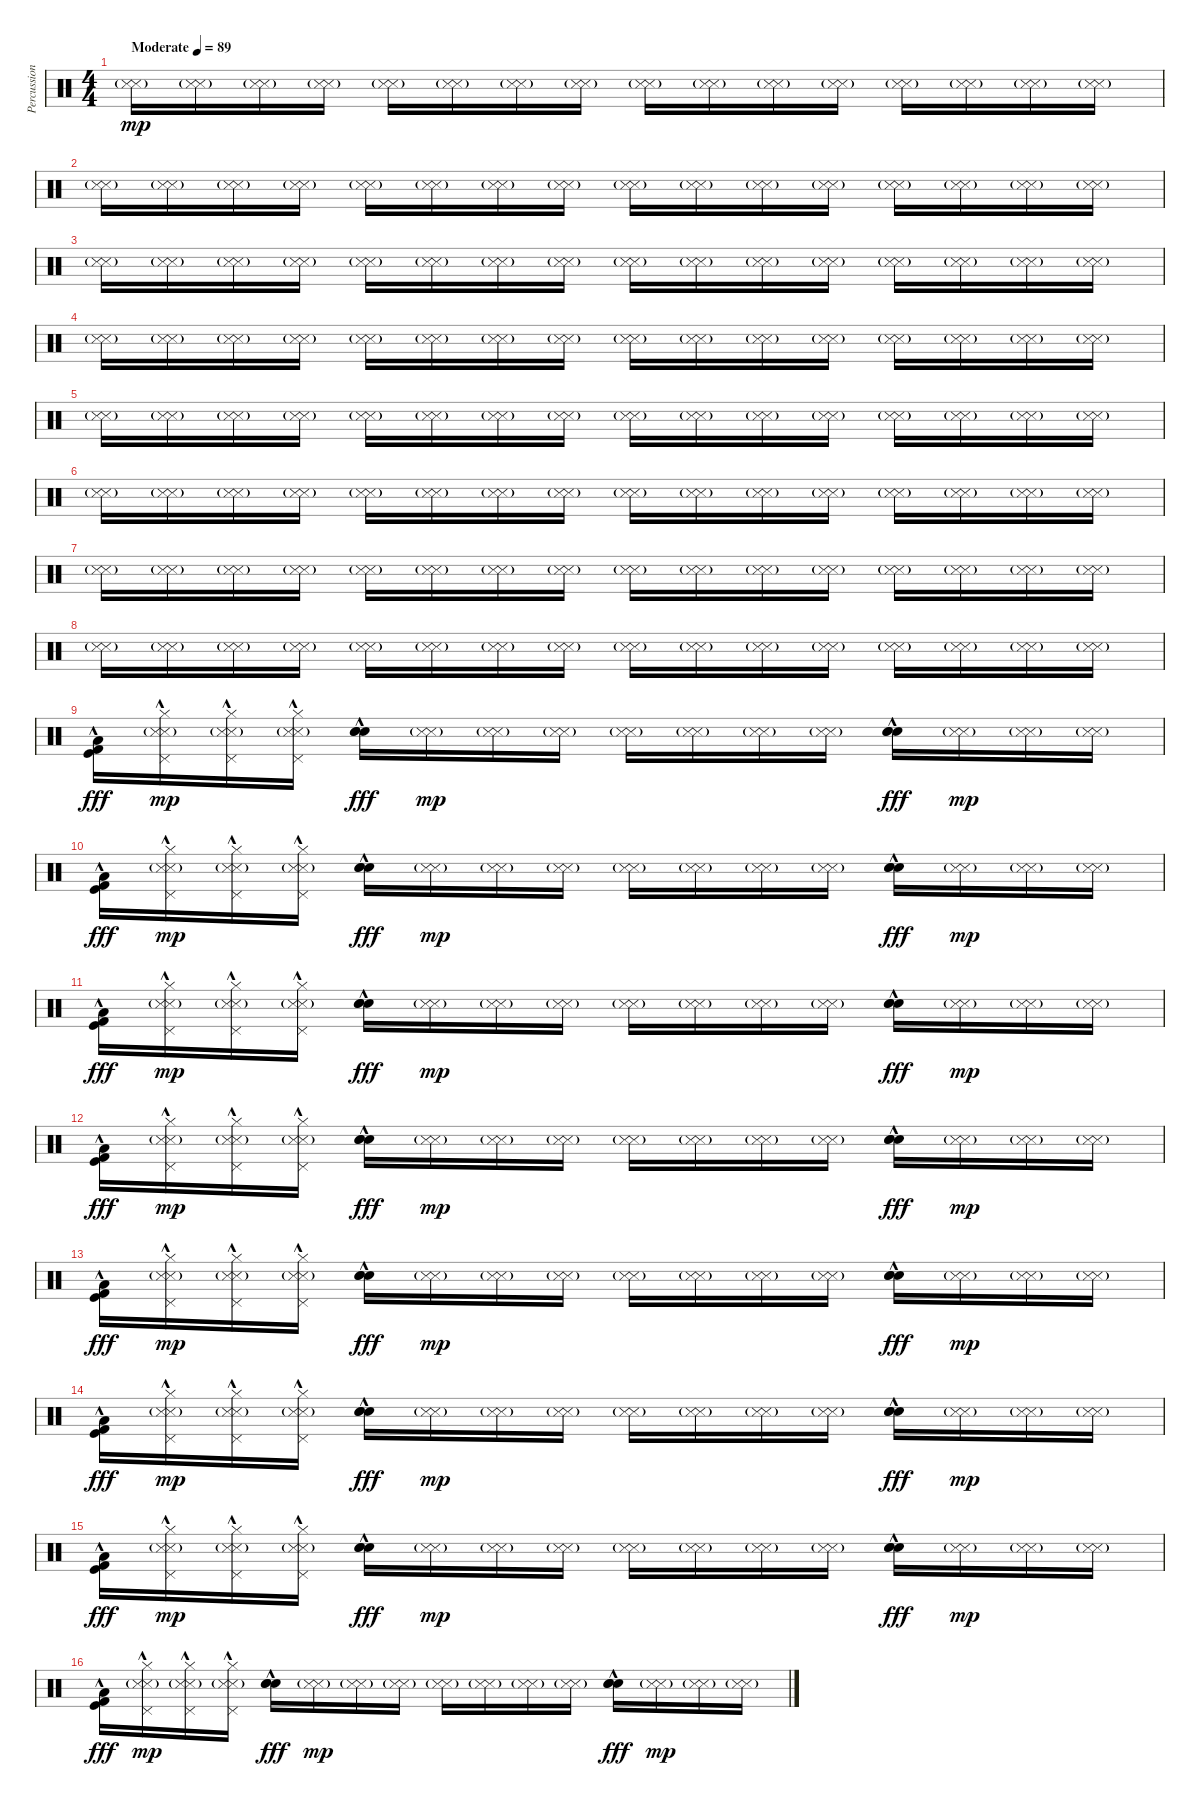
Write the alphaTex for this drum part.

\track ("Percussion" "Percussion") {instrument percussion}
\staff {score}
\articulation defaults
\ts (4 4)
\tempo (89 "Moderate")
\clef neutral
\ks c
("Snare (side stick) 3"{g} "Metronome (hit)"{g}).16{dy mp} ("Snare (side stick) 3"{g} "Metronome (hit)"{g}).16 ("Snare (side stick) 3"{g} "Metronome (hit)"{g}).16 ("Snare (side stick) 3"{g} "Metronome (hit)"{g}).16 ("Snare (side stick) 3"{g} "Metronome (hit)"{g}).16 ("Snare (side stick) 3"{g} "Metronome (hit)"{g}).16 ("Snare (side stick) 3"{g} "Metronome (hit)"{g}).16 ("Snare (side stick) 3"{g} "Metronome (hit)"{g}).16 ("Snare (side stick) 3"{g} "Metronome (hit)"{g}).16 ("Snare (side stick) 3"{g} "Metronome (hit)"{g}).16 ("Snare (side stick) 3"{g} "Metronome (hit)"{g}).16 ("Snare (side stick) 3"{g} "Metronome (hit)"{g}).16 ("Snare (side stick) 3"{g} "Metronome (hit)"{g}).16 ("Snare (side stick) 3"{g} "Metronome (hit)"{g}).16 ("Snare (side stick) 3"{g} "Metronome (hit)"{g}).16 ("Snare (side stick) 3"{g} "Metronome (hit)"{g}).16 |
("Snare (side stick) 3"{g} "Metronome (hit)"{g}).16 ("Snare (side stick) 3"{g} "Metronome (hit)"{g}).16 ("Snare (side stick) 3"{g} "Metronome (hit)"{g}).16 ("Snare (side stick) 3"{g} "Metronome (hit)"{g}).16 ("Snare (side stick) 3"{g} "Metronome (hit)"{g}).16 ("Snare (side stick) 3"{g} "Metronome (hit)"{g}).16 ("Snare (side stick) 3"{g} "Metronome (hit)"{g}).16 ("Snare (side stick) 3"{g} "Metronome (hit)"{g}).16 ("Snare (side stick) 3"{g} "Metronome (hit)"{g}).16 ("Snare (side stick) 3"{g} "Metronome (hit)"{g}).16 ("Snare (side stick) 3"{g} "Metronome (hit)"{g}).16 ("Snare (side stick) 3"{g} "Metronome (hit)"{g}).16 ("Snare (side stick) 3"{g} "Metronome (hit)"{g}).16 ("Snare (side stick) 3"{g} "Metronome (hit)"{g}).16 ("Snare (side stick) 3"{g} "Metronome (hit)"{g}).16 ("Snare (side stick) 3"{g} "Metronome (hit)"{g}).16 |
("Snare (side stick) 3"{g} "Metronome (hit)"{g}).16 ("Snare (side stick) 3"{g} "Metronome (hit)"{g}).16 ("Snare (side stick) 3"{g} "Metronome (hit)"{g}).16 ("Snare (side stick) 3"{g} "Metronome (hit)"{g}).16 ("Snare (side stick) 3"{g} "Metronome (hit)"{g}).16 ("Snare (side stick) 3"{g} "Metronome (hit)"{g}).16 ("Snare (side stick) 3"{g} "Metronome (hit)"{g}).16 ("Snare (side stick) 3"{g} "Metronome (hit)"{g}).16 ("Snare (side stick) 3"{g} "Metronome (hit)"{g}).16 ("Snare (side stick) 3"{g} "Metronome (hit)"{g}).16 ("Snare (side stick) 3"{g} "Metronome (hit)"{g}).16 ("Snare (side stick) 3"{g} "Metronome (hit)"{g}).16 ("Snare (side stick) 3"{g} "Metronome (hit)"{g}).16 ("Snare (side stick) 3"{g} "Metronome (hit)"{g}).16 ("Snare (side stick) 3"{g} "Metronome (hit)"{g}).16 ("Snare (side stick) 3"{g} "Metronome (hit)"{g}).16 |
("Snare (side stick) 3"{g} "Metronome (hit)"{g}).16 ("Snare (side stick) 3"{g} "Metronome (hit)"{g}).16 ("Snare (side stick) 3"{g} "Metronome (hit)"{g}).16 ("Snare (side stick) 3"{g} "Metronome (hit)"{g}).16 ("Snare (side stick) 3"{g} "Metronome (hit)"{g}).16 ("Snare (side stick) 3"{g} "Metronome (hit)"{g}).16 ("Snare (side stick) 3"{g} "Metronome (hit)"{g}).16 ("Snare (side stick) 3"{g} "Metronome (hit)"{g}).16 ("Snare (side stick) 3"{g} "Metronome (hit)"{g}).16 ("Snare (side stick) 3"{g} "Metronome (hit)"{g}).16 ("Snare (side stick) 3"{g} "Metronome (hit)"{g}).16 ("Snare (side stick) 3"{g} "Metronome (hit)"{g}).16 ("Snare (side stick) 3"{g} "Metronome (hit)"{g}).16 ("Snare (side stick) 3"{g} "Metronome (hit)"{g}).16 ("Snare (side stick) 3"{g} "Metronome (hit)"{g}).16 ("Snare (side stick) 3"{g} "Metronome (hit)"{g}).16 |
("Snare (side stick) 3"{g} "Metronome (hit)"{g}).16 ("Snare (side stick) 3"{g} "Metronome (hit)"{g}).16 ("Snare (side stick) 3"{g} "Metronome (hit)"{g}).16 ("Snare (side stick) 3"{g} "Metronome (hit)"{g}).16 ("Snare (side stick) 3"{g} "Metronome (hit)"{g}).16 ("Snare (side stick) 3"{g} "Metronome (hit)"{g}).16 ("Snare (side stick) 3"{g} "Metronome (hit)"{g}).16 ("Snare (side stick) 3"{g} "Metronome (hit)"{g}).16 ("Snare (side stick) 3"{g} "Metronome (hit)"{g}).16 ("Snare (side stick) 3"{g} "Metronome (hit)"{g}).16 ("Snare (side stick) 3"{g} "Metronome (hit)"{g}).16 ("Snare (side stick) 3"{g} "Metronome (hit)"{g}).16 ("Snare (side stick) 3"{g} "Metronome (hit)"{g}).16 ("Snare (side stick) 3"{g} "Metronome (hit)"{g}).16 ("Snare (side stick) 3"{g} "Metronome (hit)"{g}).16 ("Snare (side stick) 3"{g} "Metronome (hit)"{g}).16 |
("Snare (side stick) 3"{g} "Metronome (hit)"{g}).16 ("Snare (side stick) 3"{g} "Metronome (hit)"{g}).16 ("Snare (side stick) 3"{g} "Metronome (hit)"{g}).16 ("Snare (side stick) 3"{g} "Metronome (hit)"{g}).16 ("Snare (side stick) 3"{g} "Metronome (hit)"{g}).16 ("Snare (side stick) 3"{g} "Metronome (hit)"{g}).16 ("Snare (side stick) 3"{g} "Metronome (hit)"{g}).16 ("Snare (side stick) 3"{g} "Metronome (hit)"{g}).16 ("Snare (side stick) 3"{g} "Metronome (hit)"{g}).16 ("Snare (side stick) 3"{g} "Metronome (hit)"{g}).16 ("Snare (side stick) 3"{g} "Metronome (hit)"{g}).16 ("Snare (side stick) 3"{g} "Metronome (hit)"{g}).16 ("Snare (side stick) 3"{g} "Metronome (hit)"{g}).16 ("Snare (side stick) 3"{g} "Metronome (hit)"{g}).16 ("Snare (side stick) 3"{g} "Metronome (hit)"{g}).16 ("Snare (side stick) 3"{g} "Metronome (hit)"{g}).16 |
("Snare (side stick) 3"{g} "Metronome (hit)"{g}).16 ("Snare (side stick) 3"{g} "Metronome (hit)"{g}).16 ("Snare (side stick) 3"{g} "Metronome (hit)"{g}).16 ("Snare (side stick) 3"{g} "Metronome (hit)"{g}).16 ("Snare (side stick) 3"{g} "Metronome (hit)"{g}).16 ("Snare (side stick) 3"{g} "Metronome (hit)"{g}).16 ("Snare (side stick) 3"{g} "Metronome (hit)"{g}).16 ("Snare (side stick) 3"{g} "Metronome (hit)"{g}).16 ("Snare (side stick) 3"{g} "Metronome (hit)"{g}).16 ("Snare (side stick) 3"{g} "Metronome (hit)"{g}).16 ("Snare (side stick) 3"{g} "Metronome (hit)"{g}).16 ("Snare (side stick) 3"{g} "Metronome (hit)"{g}).16 ("Snare (side stick) 3"{g} "Metronome (hit)"{g}).16 ("Snare (side stick) 3"{g} "Metronome (hit)"{g}).16 ("Snare (side stick) 3"{g} "Metronome (hit)"{g}).16 ("Snare (side stick) 3"{g} "Metronome (hit)"{g}).16 |
("Snare (side stick) 3"{g} "Metronome (hit)"{g}).16 ("Snare (side stick) 3"{g} "Metronome (hit)"{g}).16 ("Snare (side stick) 3"{g} "Metronome (hit)"{g}).16 ("Snare (side stick) 3"{g} "Metronome (hit)"{g}).16 ("Snare (side stick) 3"{g} "Metronome (hit)"{g}).16 ("Snare (side stick) 3"{g} "Metronome (hit)"{g}).16 ("Snare (side stick) 3"{g} "Metronome (hit)"{g}).16 ("Snare (side stick) 3"{g} "Metronome (hit)"{g}).16 ("Snare (side stick) 3"{g} "Metronome (hit)"{g}).16 ("Snare (side stick) 3"{g} "Metronome (hit)"{g}).16 ("Snare (side stick) 3"{g} "Metronome (hit)"{g}).16 ("Snare (side stick) 3"{g} "Metronome (hit)"{g}).16 ("Snare (side stick) 3"{g} "Metronome (hit)"{g}).16 ("Snare (side stick) 3"{g} "Metronome (hit)"{g}).16 ("Snare (side stick) 3"{g} "Metronome (hit)"{g}).16 ("Snare (side stick) 3"{g} "Metronome (hit)"{g}).16 |
("Kick (hit) 2"{hac} "Kick (hit)"{hac} "Low Floor Tom (hit)"{hac}).16{dy fff} ("Pedal Hi-Hat (hit)"{hac} "Hi-Hat (closed)" "Snare (side stick) 3"{g} "Metronome (hit)"{g}).16{dy mp} ("Pedal Hi-Hat (hit)"{hac} "Hi-Hat (closed)" "Snare (side stick) 3"{g} "Metronome (hit)"{g}).16 ("Pedal Hi-Hat (hit)"{hac} "Hi-Hat (closed)" "Snare (side stick) 3"{g} "Metronome (hit)"{g}).16 ("Hand Clap (hit)"{hac} "Hand Clap (hit)"{hac} "Hand Clap (hit)"{hac}).16{dy fff} ("Snare (side stick) 3"{g} "Metronome (hit)"{g}).16{dy mp} ("Snare (side stick) 3"{g} "Metronome (hit)"{g}).16 ("Snare (side stick) 3"{g} "Metronome (hit)"{g}).16 ("Snare (side stick) 3"{g} "Metronome (hit)"{g}).16 ("Snare (side stick) 3"{g} "Metronome (hit)"{g}).16 ("Snare (side stick) 3"{g} "Metronome (hit)"{g}).16 ("Snare (side stick) 3"{g} "Metronome (hit)"{g}).16 ("Hand Clap (hit)"{hac} "Hand Clap (hit)"{hac} "Hand Clap (hit)"{hac}).16{dy fff} ("Snare (side stick) 3"{g} "Metronome (hit)"{g}).16{dy mp} ("Snare (side stick) 3"{g} "Metronome (hit)"{g}).16 ("Snare (side stick) 3"{g} "Metronome (hit)"{g}).16 |
("Kick (hit) 2"{hac} "Kick (hit)"{hac} "Low Floor Tom (hit)"{hac}).16{dy fff} ("Pedal Hi-Hat (hit)"{hac} "Hi-Hat (closed)" "Snare (side stick) 3"{g} "Metronome (hit)"{g}).16{dy mp} ("Pedal Hi-Hat (hit)"{hac} "Hi-Hat (closed)" "Snare (side stick) 3"{g} "Metronome (hit)"{g}).16 ("Pedal Hi-Hat (hit)"{hac} "Hi-Hat (closed)" "Snare (side stick) 3"{g} "Metronome (hit)"{g}).16 ("Hand Clap (hit)"{hac} "Hand Clap (hit)"{hac} "Hand Clap (hit)"{hac}).16{dy fff} ("Snare (side stick) 3"{g} "Metronome (hit)"{g}).16{dy mp} ("Snare (side stick) 3"{g} "Metronome (hit)"{g}).16 ("Snare (side stick) 3"{g} "Metronome (hit)"{g}).16 ("Snare (side stick) 3"{g} "Metronome (hit)"{g}).16 ("Snare (side stick) 3"{g} "Metronome (hit)"{g}).16 ("Snare (side stick) 3"{g} "Metronome (hit)"{g}).16 ("Snare (side stick) 3"{g} "Metronome (hit)"{g}).16 ("Hand Clap (hit)"{hac} "Hand Clap (hit)"{hac} "Hand Clap (hit)"{hac}).16{dy fff} ("Snare (side stick) 3"{g} "Metronome (hit)"{g}).16{dy mp} ("Snare (side stick) 3"{g} "Metronome (hit)"{g}).16 ("Snare (side stick) 3"{g} "Metronome (hit)"{g}).16 |
("Kick (hit) 2"{hac} "Kick (hit)"{hac} "Low Floor Tom (hit)"{hac}).16{dy fff} ("Pedal Hi-Hat (hit)"{hac} "Hi-Hat (closed)" "Snare (side stick) 3"{g} "Metronome (hit)"{g}).16{dy mp} ("Pedal Hi-Hat (hit)"{hac} "Hi-Hat (closed)" "Snare (side stick) 3"{g} "Metronome (hit)"{g}).16 ("Pedal Hi-Hat (hit)"{hac} "Hi-Hat (closed)" "Snare (side stick) 3"{g} "Metronome (hit)"{g}).16 ("Hand Clap (hit)"{hac} "Hand Clap (hit)"{hac} "Hand Clap (hit)"{hac}).16{dy fff} ("Snare (side stick) 3"{g} "Metronome (hit)"{g}).16{dy mp} ("Snare (side stick) 3"{g} "Metronome (hit)"{g}).16 ("Snare (side stick) 3"{g} "Metronome (hit)"{g}).16 ("Snare (side stick) 3"{g} "Metronome (hit)"{g}).16 ("Snare (side stick) 3"{g} "Metronome (hit)"{g}).16 ("Snare (side stick) 3"{g} "Metronome (hit)"{g}).16 ("Snare (side stick) 3"{g} "Metronome (hit)"{g}).16 ("Hand Clap (hit)"{hac} "Hand Clap (hit)"{hac} "Hand Clap (hit)"{hac}).16{dy fff} ("Snare (side stick) 3"{g} "Metronome (hit)"{g}).16{dy mp} ("Snare (side stick) 3"{g} "Metronome (hit)"{g}).16 ("Snare (side stick) 3"{g} "Metronome (hit)"{g}).16 |
("Kick (hit) 2"{hac} "Kick (hit)"{hac} "Low Floor Tom (hit)"{hac}).16{dy fff} ("Pedal Hi-Hat (hit)"{hac} "Hi-Hat (closed)" "Snare (side stick) 3"{g} "Metronome (hit)"{g}).16{dy mp} ("Pedal Hi-Hat (hit)"{hac} "Hi-Hat (closed)" "Snare (side stick) 3"{g} "Metronome (hit)"{g}).16 ("Pedal Hi-Hat (hit)"{hac} "Hi-Hat (closed)" "Snare (side stick) 3"{g} "Metronome (hit)"{g}).16 ("Hand Clap (hit)"{hac} "Hand Clap (hit)"{hac} "Hand Clap (hit)"{hac}).16{dy fff} ("Snare (side stick) 3"{g} "Metronome (hit)"{g}).16{dy mp} ("Snare (side stick) 3"{g} "Metronome (hit)"{g}).16 ("Snare (side stick) 3"{g} "Metronome (hit)"{g}).16 ("Snare (side stick) 3"{g} "Metronome (hit)"{g}).16 ("Snare (side stick) 3"{g} "Metronome (hit)"{g}).16 ("Snare (side stick) 3"{g} "Metronome (hit)"{g}).16 ("Snare (side stick) 3"{g} "Metronome (hit)"{g}).16 ("Hand Clap (hit)"{hac} "Hand Clap (hit)"{hac} "Hand Clap (hit)"{hac}).16{dy fff} ("Snare (side stick) 3"{g} "Metronome (hit)"{g}).16{dy mp} ("Snare (side stick) 3"{g} "Metronome (hit)"{g}).16 ("Snare (side stick) 3"{g} "Metronome (hit)"{g}).16 |
("Kick (hit) 2"{hac} "Kick (hit)"{hac} "Low Floor Tom (hit)"{hac}).16{dy fff} ("Pedal Hi-Hat (hit)"{hac} "Hi-Hat (closed)" "Snare (side stick) 3"{g} "Metronome (hit)"{g}).16{dy mp} ("Pedal Hi-Hat (hit)"{hac} "Hi-Hat (closed)" "Snare (side stick) 3"{g} "Metronome (hit)"{g}).16 ("Pedal Hi-Hat (hit)"{hac} "Hi-Hat (closed)" "Snare (side stick) 3"{g} "Metronome (hit)"{g}).16 ("Hand Clap (hit)"{hac} "Hand Clap (hit)"{hac} "Hand Clap (hit)"{hac}).16{dy fff} ("Snare (side stick) 3"{g} "Metronome (hit)"{g}).16{dy mp} ("Snare (side stick) 3"{g} "Metronome (hit)"{g}).16 ("Snare (side stick) 3"{g} "Metronome (hit)"{g}).16 ("Snare (side stick) 3"{g} "Metronome (hit)"{g}).16 ("Snare (side stick) 3"{g} "Metronome (hit)"{g}).16 ("Snare (side stick) 3"{g} "Metronome (hit)"{g}).16 ("Snare (side stick) 3"{g} "Metronome (hit)"{g}).16 ("Hand Clap (hit)"{hac} "Hand Clap (hit)"{hac} "Hand Clap (hit)"{hac}).16{dy fff} ("Snare (side stick) 3"{g} "Metronome (hit)"{g}).16{dy mp} ("Snare (side stick) 3"{g} "Metronome (hit)"{g}).16 ("Snare (side stick) 3"{g} "Metronome (hit)"{g}).16 |
("Kick (hit) 2"{hac} "Kick (hit)"{hac} "Low Floor Tom (hit)"{hac}).16{dy fff} ("Pedal Hi-Hat (hit)"{hac} "Hi-Hat (closed)" "Snare (side stick) 3"{g} "Metronome (hit)"{g}).16{dy mp} ("Pedal Hi-Hat (hit)"{hac} "Hi-Hat (closed)" "Snare (side stick) 3"{g} "Metronome (hit)"{g}).16 ("Pedal Hi-Hat (hit)"{hac} "Hi-Hat (closed)" "Snare (side stick) 3"{g} "Metronome (hit)"{g}).16 ("Hand Clap (hit)"{hac} "Hand Clap (hit)"{hac} "Hand Clap (hit)"{hac}).16{dy fff} ("Snare (side stick) 3"{g} "Metronome (hit)"{g}).16{dy mp} ("Snare (side stick) 3"{g} "Metronome (hit)"{g}).16 ("Snare (side stick) 3"{g} "Metronome (hit)"{g}).16 ("Snare (side stick) 3"{g} "Metronome (hit)"{g}).16 ("Snare (side stick) 3"{g} "Metronome (hit)"{g}).16 ("Snare (side stick) 3"{g} "Metronome (hit)"{g}).16 ("Snare (side stick) 3"{g} "Metronome (hit)"{g}).16 ("Hand Clap (hit)"{hac} "Hand Clap (hit)"{hac} "Hand Clap (hit)"{hac}).16{dy fff} ("Snare (side stick) 3"{g} "Metronome (hit)"{g}).16{dy mp} ("Snare (side stick) 3"{g} "Metronome (hit)"{g}).16 ("Snare (side stick) 3"{g} "Metronome (hit)"{g}).16 |
("Kick (hit) 2"{hac} "Kick (hit)"{hac} "Low Floor Tom (hit)"{hac}).16{dy fff} ("Pedal Hi-Hat (hit)"{hac} "Hi-Hat (closed)" "Snare (side stick) 3"{g} "Metronome (hit)"{g}).16{dy mp} ("Pedal Hi-Hat (hit)"{hac} "Hi-Hat (closed)" "Snare (side stick) 3"{g} "Metronome (hit)"{g}).16 ("Pedal Hi-Hat (hit)"{hac} "Hi-Hat (closed)" "Snare (side stick) 3"{g} "Metronome (hit)"{g}).16 ("Hand Clap (hit)"{hac} "Hand Clap (hit)"{hac} "Hand Clap (hit)"{hac}).16{dy fff} ("Snare (side stick) 3"{g} "Metronome (hit)"{g}).16{dy mp} ("Snare (side stick) 3"{g} "Metronome (hit)"{g}).16 ("Snare (side stick) 3"{g} "Metronome (hit)"{g}).16 ("Snare (side stick) 3"{g} "Metronome (hit)"{g}).16 ("Snare (side stick) 3"{g} "Metronome (hit)"{g}).16 ("Snare (side stick) 3"{g} "Metronome (hit)"{g}).16 ("Snare (side stick) 3"{g} "Metronome (hit)"{g}).16 ("Hand Clap (hit)"{hac} "Hand Clap (hit)"{hac} "Hand Clap (hit)"{hac}).16{dy fff} ("Snare (side stick) 3"{g} "Metronome (hit)"{g}).16{dy mp} ("Snare (side stick) 3"{g} "Metronome (hit)"{g}).16 ("Snare (side stick) 3"{g} "Metronome (hit)"{g}).16 |
("Kick (hit) 2"{hac} "Kick (hit)"{hac} "Low Floor Tom (hit)"{hac}).16{dy fff} ("Pedal Hi-Hat (hit)"{hac} "Hi-Hat (closed)" "Snare (side stick) 3"{g} "Metronome (hit)"{g}).16{dy mp} ("Pedal Hi-Hat (hit)"{hac} "Hi-Hat (closed)" "Snare (side stick) 3"{g} "Metronome (hit)"{g}).16 ("Pedal Hi-Hat (hit)"{hac} "Hi-Hat (closed)" "Snare (side stick) 3"{g} "Metronome (hit)"{g}).16 ("Hand Clap (hit)"{hac} "Hand Clap (hit)"{hac} "Hand Clap (hit)"{hac}).16{dy fff} ("Snare (side stick) 3"{g} "Metronome (hit)"{g}).16{dy mp} ("Snare (side stick) 3"{g} "Metronome (hit)"{g}).16 ("Snare (side stick) 3"{g} "Metronome (hit)"{g}).16 ("Snare (side stick) 3"{g} "Metronome (hit)"{g}).16 ("Snare (side stick) 3"{g} "Metronome (hit)"{g}).16 ("Snare (side stick) 3"{g} "Metronome (hit)"{g}).16 ("Snare (side stick) 3"{g} "Metronome (hit)"{g}).16 ("Hand Clap (hit)"{hac} "Hand Clap (hit)"{hac} "Hand Clap (hit)"{hac}).16{dy fff} ("Snare (side stick) 3"{g} "Metronome (hit)"{g}).16{dy mp} ("Snare (side stick) 3"{g} "Metronome (hit)"{g}).16 ("Snare (side stick) 3"{g} "Metronome (hit)"{g}).16
